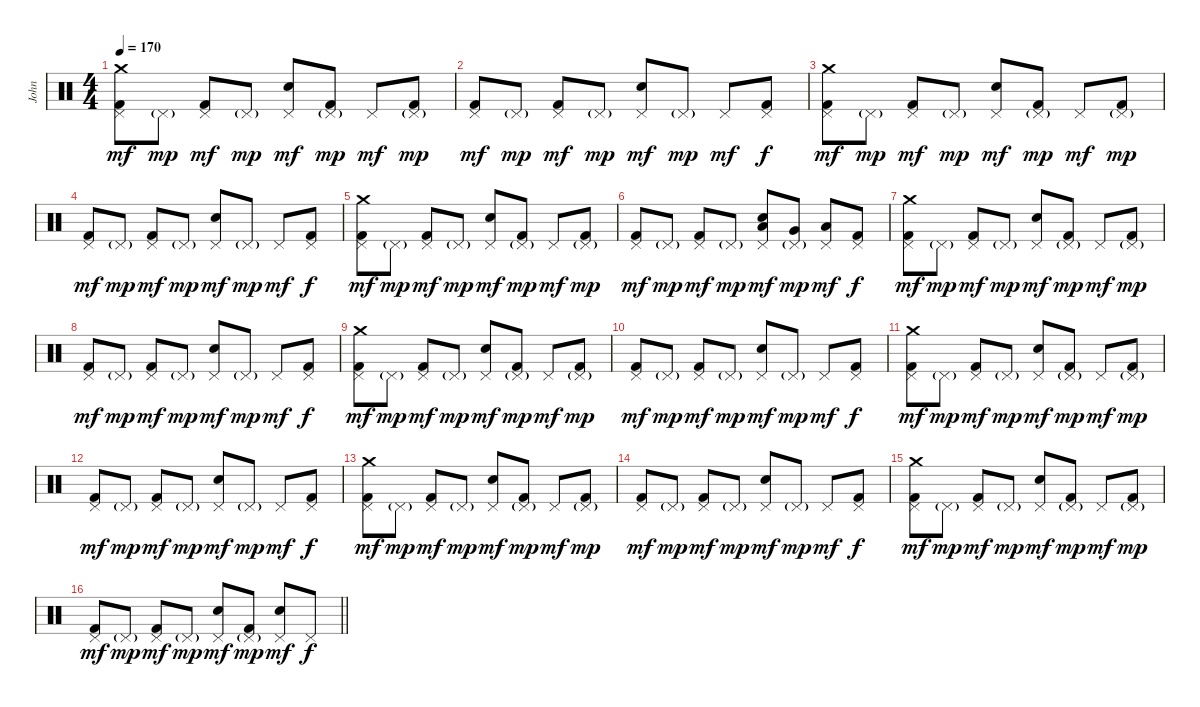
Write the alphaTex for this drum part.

\track ("John" "John") {instrument percussion}
\staff {score}
\articulation defaults
\ts (4 4)
\tempo 170
\clef neutral
\ks c
("Crash medium (hit)" "Pedal Hi-Hat (hit)" "Kick (hit) 2").8{dy mf} "Pedal Hi-Hat (hit)"{g}.8{dy mp} ("Pedal Hi-Hat (hit)" "Kick (hit) 2").8{dy mf} "Pedal Hi-Hat (hit)"{g}.8{dy mp} ("Pedal Hi-Hat (hit)" "Electric Snare (hit)").8{dy mf} ("Pedal Hi-Hat (hit)"{g} "Kick (hit) 2").8{dy mp} "Pedal Hi-Hat (hit)".8{dy mf} ("Pedal Hi-Hat (hit)"{g} "Kick (hit) 2").8{dy mp} |
("Pedal Hi-Hat (hit)" "Kick (hit) 2").8{dy mf} "Pedal Hi-Hat (hit)"{g}.8{dy mp} ("Pedal Hi-Hat (hit)" "Kick (hit) 2").8{dy mf} "Pedal Hi-Hat (hit)"{g}.8{dy mp} ("Pedal Hi-Hat (hit)" "Electric Snare (hit)").8{dy mf} "Pedal Hi-Hat (hit)"{g}.8{dy mp} "Pedal Hi-Hat (hit)".8{dy mf} ("Pedal Hi-Hat (hit)" "Kick (hit) 2").8{dy f} |
("Crash medium (hit)" "Pedal Hi-Hat (hit)" "Kick (hit) 2").8{dy mf} "Pedal Hi-Hat (hit)"{g}.8{dy mp} ("Pedal Hi-Hat (hit)" "Kick (hit) 2").8{dy mf} "Pedal Hi-Hat (hit)"{g}.8{dy mp} ("Pedal Hi-Hat (hit)" "Electric Snare (hit)").8{dy mf} ("Pedal Hi-Hat (hit)"{g} "Kick (hit) 2").8{dy mp} "Pedal Hi-Hat (hit)".8{dy mf} ("Pedal Hi-Hat (hit)"{g} "Kick (hit) 2").8{dy mp} |
("Pedal Hi-Hat (hit)" "Kick (hit) 2").8{dy mf} "Pedal Hi-Hat (hit)"{g}.8{dy mp} ("Pedal Hi-Hat (hit)" "Kick (hit) 2").8{dy mf} "Pedal Hi-Hat (hit)"{g}.8{dy mp} ("Pedal Hi-Hat (hit)" "Electric Snare (hit)").8{dy mf} "Pedal Hi-Hat (hit)"{g}.8{dy mp} "Pedal Hi-Hat (hit)".8{dy mf} ("Pedal Hi-Hat (hit)" "Kick (hit) 2").8{dy f} |
("Crash medium (hit)" "Pedal Hi-Hat (hit)" "Kick (hit) 2").8{dy mf} "Pedal Hi-Hat (hit)"{g}.8{dy mp} ("Pedal Hi-Hat (hit)" "Kick (hit) 2").8{dy mf} "Pedal Hi-Hat (hit)"{g}.8{dy mp} ("Pedal Hi-Hat (hit)" "Electric Snare (hit)").8{dy mf} ("Pedal Hi-Hat (hit)"{g} "Kick (hit) 2").8{dy mp} "Pedal Hi-Hat (hit)".8{dy mf} ("Pedal Hi-Hat (hit)"{g} "Kick (hit) 2").8{dy mp} |
("Pedal Hi-Hat (hit)" "Kick (hit) 2").8{dy mf} "Pedal Hi-Hat (hit)"{g}.8{dy mp} ("Pedal Hi-Hat (hit)" "Kick (hit) 2").8{dy mf} "Pedal Hi-Hat (hit)"{g}.8{dy mp} ("Pedal Hi-Hat (hit)" "Low Tom (hit)" "Electric Snare (hit)").8{dy mf} ("Pedal Hi-Hat (hit)"{g} "Very Low Tom (hit)").8{dy mp} ("Pedal Hi-Hat (hit)" "Low Floor Tom (hit)").8{dy mf} ("Pedal Hi-Hat (hit)" "Kick (hit) 2").8{dy f} |
("Crash medium (hit)" "Pedal Hi-Hat (hit)" "Kick (hit) 2").8{dy mf} "Pedal Hi-Hat (hit)"{g}.8{dy mp} ("Pedal Hi-Hat (hit)" "Kick (hit) 2").8{dy mf} "Pedal Hi-Hat (hit)"{g}.8{dy mp} ("Pedal Hi-Hat (hit)" "Electric Snare (hit)").8{dy mf} ("Pedal Hi-Hat (hit)"{g} "Kick (hit) 2").8{dy mp} "Pedal Hi-Hat (hit)".8{dy mf} ("Pedal Hi-Hat (hit)"{g} "Kick (hit) 2").8{dy mp} |
("Pedal Hi-Hat (hit)" "Kick (hit) 2").8{dy mf} "Pedal Hi-Hat (hit)"{g}.8{dy mp} ("Pedal Hi-Hat (hit)" "Kick (hit) 2").8{dy mf} "Pedal Hi-Hat (hit)"{g}.8{dy mp} ("Pedal Hi-Hat (hit)" "Electric Snare (hit)").8{dy mf} "Pedal Hi-Hat (hit)"{g}.8{dy mp} "Pedal Hi-Hat (hit)".8{dy mf} ("Pedal Hi-Hat (hit)" "Kick (hit) 2").8{dy f} |
("Crash medium (hit)" "Pedal Hi-Hat (hit)" "Kick (hit) 2").8{dy mf} "Pedal Hi-Hat (hit)"{g}.8{dy mp} ("Pedal Hi-Hat (hit)" "Kick (hit) 2").8{dy mf} "Pedal Hi-Hat (hit)"{g}.8{dy mp} ("Pedal Hi-Hat (hit)" "Electric Snare (hit)").8{dy mf} ("Pedal Hi-Hat (hit)"{g} "Kick (hit) 2").8{dy mp} "Pedal Hi-Hat (hit)".8{dy mf} ("Pedal Hi-Hat (hit)"{g} "Kick (hit) 2").8{dy mp} |
("Pedal Hi-Hat (hit)" "Kick (hit) 2").8{dy mf} "Pedal Hi-Hat (hit)"{g}.8{dy mp} ("Pedal Hi-Hat (hit)" "Kick (hit) 2").8{dy mf} "Pedal Hi-Hat (hit)"{g}.8{dy mp} ("Pedal Hi-Hat (hit)" "Electric Snare (hit)").8{dy mf} "Pedal Hi-Hat (hit)"{g}.8{dy mp} "Pedal Hi-Hat (hit)".8{dy mf} ("Pedal Hi-Hat (hit)" "Kick (hit) 2").8{dy f} |
("Crash medium (hit)" "Pedal Hi-Hat (hit)" "Kick (hit) 2").8{dy mf} "Pedal Hi-Hat (hit)"{g}.8{dy mp} ("Pedal Hi-Hat (hit)" "Kick (hit) 2").8{dy mf} "Pedal Hi-Hat (hit)"{g}.8{dy mp} ("Pedal Hi-Hat (hit)" "Electric Snare (hit)").8{dy mf} ("Pedal Hi-Hat (hit)"{g} "Kick (hit) 2").8{dy mp} "Pedal Hi-Hat (hit)".8{dy mf} ("Pedal Hi-Hat (hit)"{g} "Kick (hit) 2").8{dy mp} |
("Pedal Hi-Hat (hit)" "Kick (hit) 2").8{dy mf} "Pedal Hi-Hat (hit)"{g}.8{dy mp} ("Pedal Hi-Hat (hit)" "Kick (hit) 2").8{dy mf} "Pedal Hi-Hat (hit)"{g}.8{dy mp} ("Pedal Hi-Hat (hit)" "Electric Snare (hit)").8{dy mf} "Pedal Hi-Hat (hit)"{g}.8{dy mp} "Pedal Hi-Hat (hit)".8{dy mf} ("Pedal Hi-Hat (hit)" "Kick (hit) 2").8{dy f} |
("Crash medium (hit)" "Pedal Hi-Hat (hit)" "Kick (hit) 2").8{dy mf} "Pedal Hi-Hat (hit)"{g}.8{dy mp} ("Pedal Hi-Hat (hit)" "Kick (hit) 2").8{dy mf} "Pedal Hi-Hat (hit)"{g}.8{dy mp} ("Pedal Hi-Hat (hit)" "Electric Snare (hit)").8{dy mf} ("Pedal Hi-Hat (hit)"{g} "Kick (hit) 2").8{dy mp} "Pedal Hi-Hat (hit)".8{dy mf} ("Pedal Hi-Hat (hit)"{g} "Kick (hit) 2").8{dy mp} |
("Pedal Hi-Hat (hit)" "Kick (hit) 2").8{dy mf} "Pedal Hi-Hat (hit)"{g}.8{dy mp} ("Pedal Hi-Hat (hit)" "Kick (hit) 2").8{dy mf} "Pedal Hi-Hat (hit)"{g}.8{dy mp} ("Pedal Hi-Hat (hit)" "Electric Snare (hit)").8{dy mf} "Pedal Hi-Hat (hit)"{g}.8{dy mp} "Pedal Hi-Hat (hit)".8{dy mf} ("Pedal Hi-Hat (hit)" "Kick (hit) 2").8{dy f} |
("Crash medium (hit)" "Pedal Hi-Hat (hit)" "Kick (hit) 2").8{dy mf} "Pedal Hi-Hat (hit)"{g}.8{dy mp} ("Pedal Hi-Hat (hit)" "Kick (hit) 2").8{dy mf} "Pedal Hi-Hat (hit)"{g}.8{dy mp} ("Pedal Hi-Hat (hit)" "Electric Snare (hit)").8{dy mf} ("Pedal Hi-Hat (hit)"{g} "Kick (hit) 2").8{dy mp} "Pedal Hi-Hat (hit)".8{dy mf} ("Pedal Hi-Hat (hit)"{g} "Kick (hit) 2").8{dy mp} |
\barLineRight lightlight
("Pedal Hi-Hat (hit)" "Kick (hit) 2").8{dy mf} "Pedal Hi-Hat (hit)"{g}.8{dy mp} ("Pedal Hi-Hat (hit)" "Kick (hit) 2").8{dy mf} "Pedal Hi-Hat (hit)"{g}.8{dy mp} ("Pedal Hi-Hat (hit)" "Electric Snare (hit)").8{dy mf} ("Pedal Hi-Hat (hit)"{g} "Kick (hit) 2").8{dy mp} ("Pedal Hi-Hat (hit)" "Electric Snare (hit)").8{dy mf} "Pedal Hi-Hat (hit)".8{dy f}
